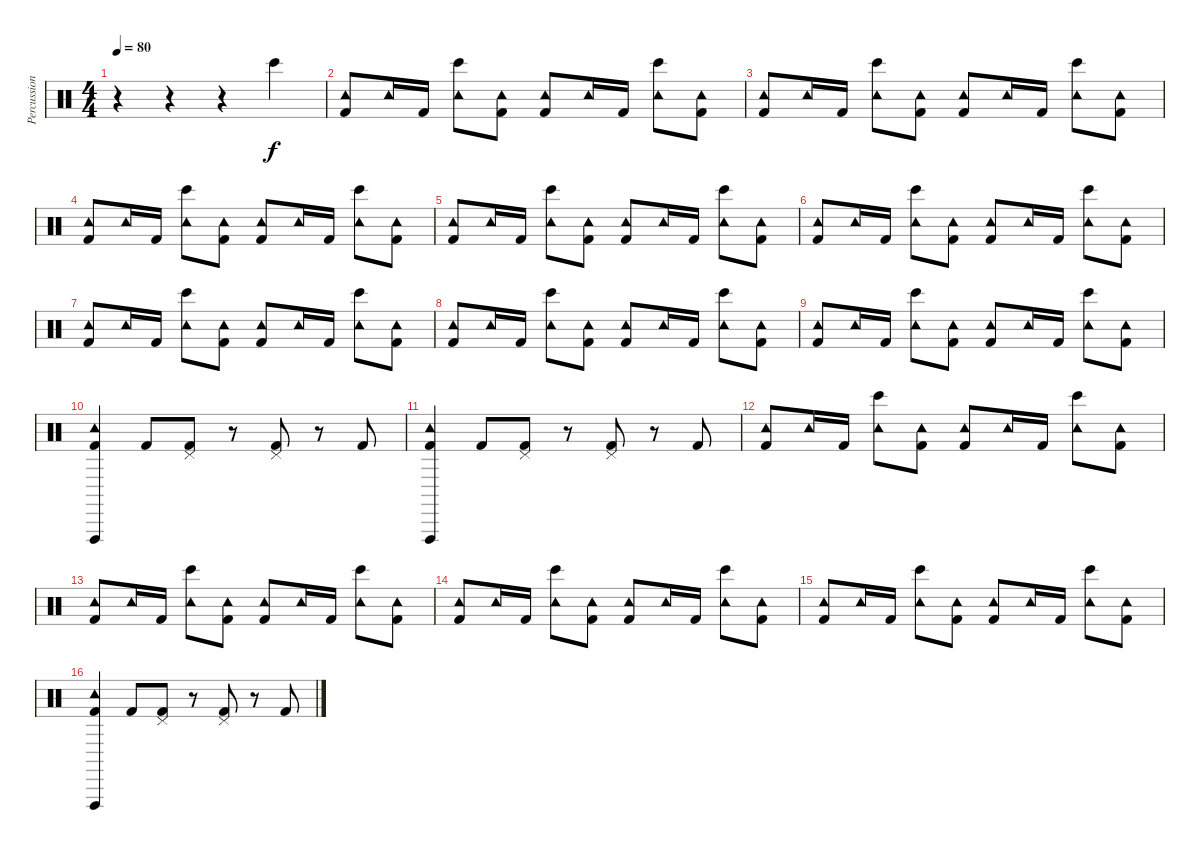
\track ("Percussion" "Percussion") {instrument percussion}
\staff {score}
\articulation defaults
\ts (4 4)
\tempo 80
\clef neutral
\ks c
r.4{dy f} r.4 r.4 "Bongo High (hit)".4 |
("Kick (hit) 2" "Tambourine (hit)").8 "Tambourine (hit)".16 "Kick (hit) 2".16 ("Bongo High (hit)" "Tambourine (hit)").8 ("Kick (hit) 2" "Tambourine (hit)").8 ("Kick (hit) 2" "Tambourine (hit)").8 "Tambourine (hit)".16 "Kick (hit) 2".16 ("Bongo High (hit)" "Tambourine (hit)").8 ("Kick (hit) 2" "Tambourine (hit)").8 |
("Kick (hit) 2" "Tambourine (hit)").8 "Tambourine (hit)".16 "Kick (hit) 2".16 ("Bongo High (hit)" "Tambourine (hit)").8 ("Kick (hit) 2" "Tambourine (hit)").8 ("Kick (hit) 2" "Tambourine (hit)").8 "Tambourine (hit)".16 "Kick (hit) 2".16 ("Bongo High (hit)" "Tambourine (hit)").8 ("Kick (hit) 2" "Tambourine (hit)").8 |
("Kick (hit) 2" "Tambourine (hit)").8 "Tambourine (hit)".16 "Kick (hit) 2".16 ("Bongo High (hit)" "Tambourine (hit)").8 ("Kick (hit) 2" "Tambourine (hit)").8 ("Kick (hit) 2" "Tambourine (hit)").8 "Tambourine (hit)".16 "Kick (hit) 2".16 ("Bongo High (hit)" "Tambourine (hit)").8 ("Kick (hit) 2" "Tambourine (hit)").8 |
("Kick (hit) 2" "Tambourine (hit)").8 "Tambourine (hit)".16 "Kick (hit) 2".16 ("Bongo High (hit)" "Tambourine (hit)").8 ("Kick (hit) 2" "Tambourine (hit)").8 ("Kick (hit) 2" "Tambourine (hit)").8 "Tambourine (hit)".16 "Kick (hit) 2".16 ("Bongo High (hit)" "Tambourine (hit)").8 ("Kick (hit) 2" "Tambourine (hit)").8 |
("Kick (hit) 2" "Tambourine (hit)").8 "Tambourine (hit)".16 "Kick (hit) 2".16 ("Bongo High (hit)" "Tambourine (hit)").8 ("Kick (hit) 2" "Tambourine (hit)").8 ("Kick (hit) 2" "Tambourine (hit)").8 "Tambourine (hit)".16 "Kick (hit) 2".16 ("Bongo High (hit)" "Tambourine (hit)").8 ("Kick (hit) 2" "Tambourine (hit)").8 |
("Kick (hit) 2" "Tambourine (hit)").8 "Tambourine (hit)".16 "Kick (hit) 2".16 ("Bongo High (hit)" "Tambourine (hit)").8 ("Kick (hit) 2" "Tambourine (hit)").8 ("Kick (hit) 2" "Tambourine (hit)").8 "Tambourine (hit)".16 "Kick (hit) 2".16 ("Bongo High (hit)" "Tambourine (hit)").8 ("Kick (hit) 2" "Tambourine (hit)").8 |
("Kick (hit) 2" "Tambourine (hit)").8 "Tambourine (hit)".16 "Kick (hit) 2".16 ("Bongo High (hit)" "Tambourine (hit)").8 ("Kick (hit) 2" "Tambourine (hit)").8 ("Kick (hit) 2" "Tambourine (hit)").8 "Tambourine (hit)".16 "Kick (hit) 2".16 ("Bongo High (hit)" "Tambourine (hit)").8 ("Kick (hit) 2" "Tambourine (hit)").8 |
("Kick (hit) 2" "Tambourine (hit)").8 "Tambourine (hit)".16 "Kick (hit) 2".16 ("Bongo High (hit)" "Tambourine (hit)").8 ("Kick (hit) 2" "Tambourine (hit)").8 ("Kick (hit) 2" "Tambourine (hit)").8 "Tambourine (hit)".16 "Kick (hit) 2".16 ("Bongo High (hit)" "Tambourine (hit)").8 ("Kick (hit) 2" "Tambourine (hit)").8 |
("Tambourine (hit)" "Vibraslap (hit)" "Kick (hit) 2").4 "Kick (hit) 2".8 ("Kick (hit) 2" "Pedal Hi-Hat (hit)").8 r.8 ("Kick (hit) 2" "Pedal Hi-Hat (hit)").8 r.8 "Kick (hit) 2".8 |
("Tambourine (hit)" "Vibraslap (hit)" "Kick (hit) 2").4 "Kick (hit) 2".8 ("Kick (hit) 2" "Pedal Hi-Hat (hit)").8 r.8 ("Kick (hit) 2" "Pedal Hi-Hat (hit)").8 r.8 "Kick (hit) 2".8 |
("Kick (hit) 2" "Tambourine (hit)").8 "Tambourine (hit)".16 "Kick (hit) 2".16 ("Bongo High (hit)" "Tambourine (hit)").8 ("Kick (hit) 2" "Tambourine (hit)").8 ("Kick (hit) 2" "Tambourine (hit)").8 "Tambourine (hit)".16 "Kick (hit) 2".16 ("Bongo High (hit)" "Tambourine (hit)").8 ("Kick (hit) 2" "Tambourine (hit)").8 |
("Kick (hit) 2" "Tambourine (hit)").8 "Tambourine (hit)".16 "Kick (hit) 2".16 ("Bongo High (hit)" "Tambourine (hit)").8 ("Kick (hit) 2" "Tambourine (hit)").8 ("Kick (hit) 2" "Tambourine (hit)").8 "Tambourine (hit)".16 "Kick (hit) 2".16 ("Bongo High (hit)" "Tambourine (hit)").8 ("Kick (hit) 2" "Tambourine (hit)").8 |
("Kick (hit) 2" "Tambourine (hit)").8 "Tambourine (hit)".16 "Kick (hit) 2".16 ("Bongo High (hit)" "Tambourine (hit)").8 ("Kick (hit) 2" "Tambourine (hit)").8 ("Kick (hit) 2" "Tambourine (hit)").8 "Tambourine (hit)".16 "Kick (hit) 2".16 ("Bongo High (hit)" "Tambourine (hit)").8 ("Kick (hit) 2" "Tambourine (hit)").8 |
("Kick (hit) 2" "Tambourine (hit)").8 "Tambourine (hit)".16 "Kick (hit) 2".16 ("Bongo High (hit)" "Tambourine (hit)").8 ("Kick (hit) 2" "Tambourine (hit)").8 ("Kick (hit) 2" "Tambourine (hit)").8 "Tambourine (hit)".16 "Kick (hit) 2".16 ("Bongo High (hit)" "Tambourine (hit)").8 ("Kick (hit) 2" "Tambourine (hit)").8 |
("Tambourine (hit)" "Vibraslap (hit)" "Kick (hit) 2").4 "Kick (hit) 2".8 ("Kick (hit) 2" "Pedal Hi-Hat (hit)").8 r.8 ("Kick (hit) 2" "Pedal Hi-Hat (hit)").8 r.8 "Kick (hit) 2".8
